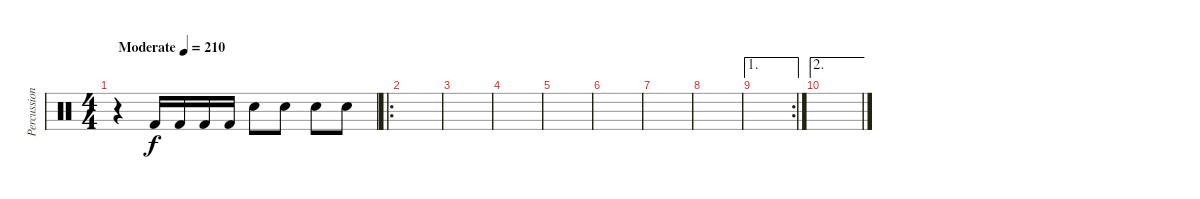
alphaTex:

\track ("Percussion" "Percussion") {instrument percussion}
\staff {score}
\articulation defaults
\ts (4 4)
\tempo (210 "Moderate")
\clef neutral
\ks c
r.4{dy f} "Kick (hit) 2".16 "Kick (hit) 2".16 "Kick (hit) 2".16 "Kick (hit) 2".16 "Electric Snare (hit)".8 "Electric Snare (hit)".8 "Electric Snare (hit)".8 "Electric Snare (hit)".8 |
\ro
|
|
|
|
|
|
|
\ae 1
\rc 2
|
\ae 2
